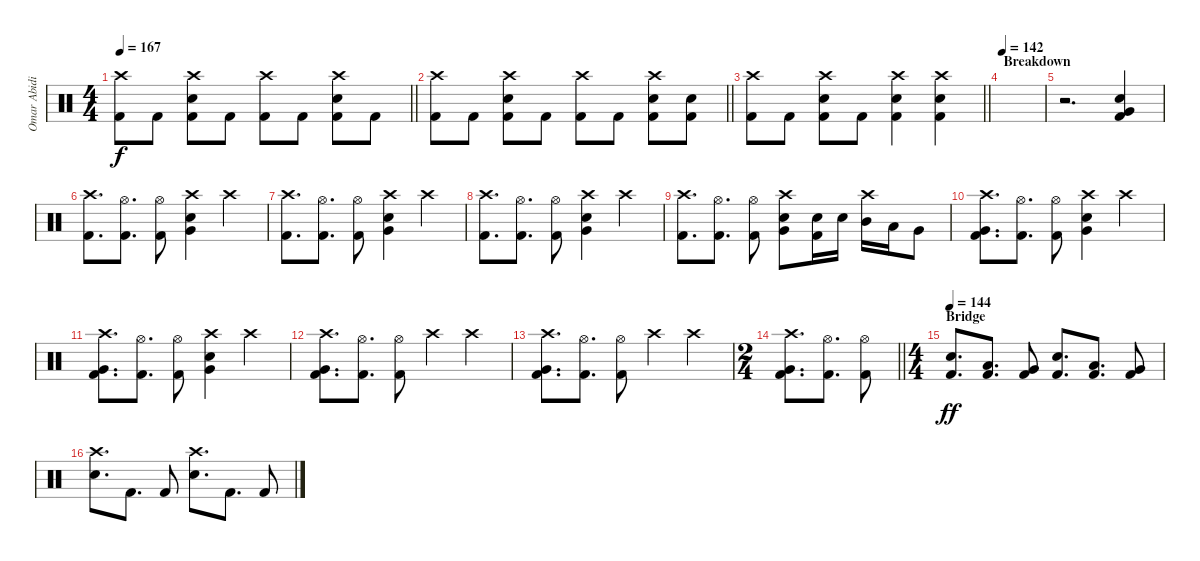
\track ("Omar Abidi" "Omar Abidi") {instrument percussion}
\staff {score}
\articulation defaults
\ts (4 4)
\tempo 167
\clef neutral
\barLineRight lightlight
\ks c
("Crash high (hit)" "Kick (hit) 2").8{dy f} "Kick (hit) 2".8 ("Crash high (hit)" "Electric Snare (hit)" "Kick (hit) 2").8 "Kick (hit) 2".8 ("Crash high (hit)" "Kick (hit) 2").8 "Kick (hit) 2".8 ("Crash high (hit)" "Electric Snare (hit)" "Kick (hit) 2").8 "Kick (hit) 2".8 |
\barLineRight lightlight
("Crash high (hit)" "Kick (hit) 2").8 "Kick (hit) 2".8 ("Crash high (hit)" "Electric Snare (hit)" "Kick (hit) 2").8 "Kick (hit) 2".8 ("Crash high (hit)" "Kick (hit) 2").8 "Kick (hit) 2".8 ("Crash high (hit)" "Electric Snare (hit)" "Kick (hit) 2").8 ("Electric Snare (hit)" "Kick (hit) 2").8 |
\barLineRight lightlight
("Crash high (hit)" "Kick (hit) 2").8 "Kick (hit) 2".8 ("Crash high (hit)" "Electric Snare (hit)" "Kick (hit) 2").8 "Kick (hit) 2".8 ("Crash high (hit)" "Electric Snare (hit)" "Kick (hit) 2").4 ("Crash high (hit)" "Electric Snare (hit)" "Kick (hit) 2").4 |
\section ("" "Breakdown")
\tempo 142
|
r.2{d} ("Electric Snare (hit)" "Very Low Tom (hit)" "Kick (hit) 2").4 |
("Crash high (hit)" "Kick (hit) 2").8{d} ("Hi-Hat (open)" "Kick (hit) 2").8{d} ("Hi-Hat (open)" "Kick (hit) 2").8 ("Crash high (hit)" "Electric Snare (hit)" "Very Low Tom (hit)").4 "Crash high (hit)".4 |
("Crash high (hit)" "Kick (hit) 2").8{d} ("Hi-Hat (open)" "Kick (hit) 2").8{d} ("Hi-Hat (open)" "Kick (hit) 2").8 ("Crash high (hit)" "Electric Snare (hit)" "Very Low Tom (hit)").4 "Crash high (hit)".4 |
("Crash high (hit)" "Kick (hit) 2").8{d} ("Hi-Hat (open)" "Kick (hit) 2").8{d} ("Hi-Hat (open)" "Kick (hit) 2").8 ("Crash high (hit)" "Electric Snare (hit)" "Very Low Tom (hit)").4 "Crash high (hit)".4 |
("Crash high (hit)" "Kick (hit) 2").8{d} ("Hi-Hat (open)" "Kick (hit) 2").8{d} ("Hi-Hat (open)" "Kick (hit) 2").8 ("Crash high (hit)" "Electric Snare (hit)" "Very Low Tom (hit)").8 ("Electric Snare (hit)" "Kick (hit) 2").16 "Electric Snare (hit)".16 ("Crash high (hit)" "Mid Tom (hit)").16 "Low Tom (hit)".16 "Very Low Tom (hit)".8 |
("Crash high (hit)" "Very Low Tom (hit)" "Kick (hit) 2").8{d} ("Hi-Hat (open)" "Kick (hit) 2").8{d} ("Hi-Hat (open)" "Kick (hit) 2").8 ("Crash high (hit)" "Electric Snare (hit)" "Very Low Tom (hit)").4 "Crash high (hit)".4 |
("Crash high (hit)" "Very Low Tom (hit)" "Kick (hit) 2").8{d} ("Hi-Hat (open)" "Kick (hit) 2").8{d} ("Hi-Hat (open)" "Kick (hit) 2").8 ("Crash high (hit)" "Electric Snare (hit)" "Very Low Tom (hit)").4 "Crash high (hit)".4 |
("Crash high (hit)" "Very Low Tom (hit)" "Kick (hit) 2").8{d} ("Hi-Hat (open)" "Kick (hit) 2").8{d} ("Hi-Hat (open)" "Kick (hit) 2").8 "Crash high (hit)".4 "Crash high (hit)".4 |
("Crash high (hit)" "Very Low Tom (hit)" "Kick (hit) 2").8{d} ("Hi-Hat (open)" "Kick (hit) 2").8{d} ("Hi-Hat (open)" "Kick (hit) 2").8 "Crash high (hit)".4 "Crash high (hit)".4 |
\ts (2 4)
\barLineRight lightlight
("Crash high (hit)" "Very Low Tom (hit)" "Kick (hit) 2").8{d} ("Hi-Hat (open)" "Kick (hit) 2").8{d} ("Hi-Hat (open)" "Kick (hit) 2").8 |
\ts (4 4)
\section ("" "Bridge")
\tempo 144
("Electric Snare (hit)" "Kick (hit) 2").8{d dy ff} ("Low Tom (hit)" "Kick (hit) 2").8{d} ("Very Low Tom (hit)" "Kick (hit) 2").8 ("Electric Snare (hit)" "Kick (hit) 2").8{d} ("Low Tom (hit)" "Kick (hit) 2").8{d} ("Very Low Tom (hit)" "Kick (hit) 2").8 |
("Crash high (hit)" "Electric Snare (hit)").8{d} "Kick (hit) 2".8{d} "Kick (hit) 2".8 ("Crash high (hit)" "Electric Snare (hit)").8{d} "Kick (hit) 2".8{d} "Kick (hit) 2".8
